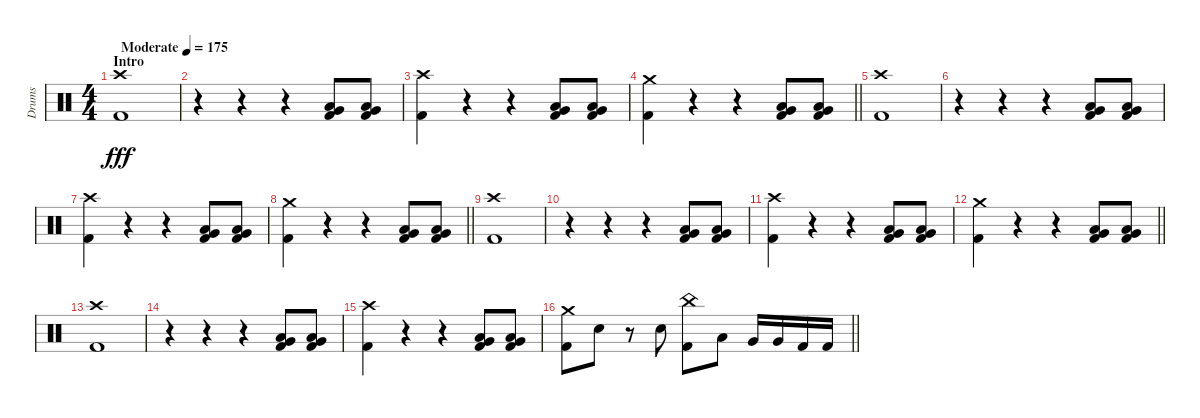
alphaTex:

\track ("Drums" "Drums") {instrument percussion}
\staff {score}
\articulation defaults
\ts (4 4)
\section ("" "Intro")
\tempo (175 "Moderate")
\clef neutral
\ks c
("Kick (hit) 2" "Crash high (hit)").1{dy fff} |
r.4 r.4 r.4 ("Kick (hit) 2" "Low Tom (hit)" "Very Low Tom (hit)").8 ("Kick (hit) 2" "Low Tom (hit)" "Very Low Tom (hit)").8 |
("Kick (hit) 2" "Crash high (hit)").4 r.4 r.4 ("Kick (hit) 2" "Low Tom (hit)" "Very Low Tom (hit)").8 ("Kick (hit) 2" "Low Tom (hit)" "Very Low Tom (hit)").8 |
\barLineRight lightlight
("Kick (hit) 2" "Crash medium (hit)").4 r.4 r.4 ("Kick (hit) 2" "Low Tom (hit)" "Very Low Tom (hit)").8 ("Kick (hit) 2" "Low Tom (hit)" "Very Low Tom (hit)").8 |
\section ("" "")
("Kick (hit) 2" "Crash high (hit)").1 |
r.4 r.4 r.4 ("Kick (hit) 2" "Low Tom (hit)" "Very Low Tom (hit)").8 ("Kick (hit) 2" "Low Tom (hit)" "Very Low Tom (hit)").8 |
("Kick (hit) 2" "Crash high (hit)").4 r.4 r.4 ("Kick (hit) 2" "Low Tom (hit)" "Very Low Tom (hit)").8 ("Kick (hit) 2" "Low Tom (hit)" "Very Low Tom (hit)").8 |
\barLineRight lightlight
("Kick (hit) 2" "Crash medium (hit)").4 r.4 r.4 ("Kick (hit) 2" "Low Tom (hit)" "Very Low Tom (hit)").8 ("Kick (hit) 2" "Low Tom (hit)" "Very Low Tom (hit)").8 |
\section ("" "")
("Kick (hit) 2" "Crash high (hit)").1 |
r.4 r.4 r.4 ("Kick (hit) 2" "Low Tom (hit)" "Very Low Tom (hit)").8 ("Kick (hit) 2" "Low Tom (hit)" "Very Low Tom (hit)").8 |
("Kick (hit) 2" "Crash high (hit)").4 r.4 r.4 ("Kick (hit) 2" "Low Tom (hit)" "Very Low Tom (hit)").8 ("Kick (hit) 2" "Low Tom (hit)" "Very Low Tom (hit)").8 |
\barLineRight lightlight
("Kick (hit) 2" "Crash medium (hit)").4 r.4 r.4 ("Kick (hit) 2" "Low Tom (hit)" "Very Low Tom (hit)").8 ("Kick (hit) 2" "Low Tom (hit)" "Very Low Tom (hit)").8 |
\section ("" "")
("Kick (hit) 2" "Crash high (hit)").1 |
r.4 r.4 r.4 ("Kick (hit) 2" "Low Tom (hit)" "Very Low Tom (hit)").8 ("Kick (hit) 2" "Low Tom (hit)" "Very Low Tom (hit)").8 |
("Kick (hit) 2" "Crash high (hit)").4 r.4 r.4 ("Kick (hit) 2" "Low Tom (hit)" "Very Low Tom (hit)").8 ("Kick (hit) 2" "Low Tom (hit)" "Very Low Tom (hit)").8 |
\barLineRight lightlight
("Kick (hit) 2" "Crash medium (hit)").8 "Electric Snare (hit)".8 r.8 "Electric Snare (hit)".8 ("Kick (hit) 2" "China (hit)").8 "Low Tom (hit)".8 "Very Low Tom (hit)".16 "Very Low Tom (hit)".16 "Kick (hit) 2".16 "Kick (hit) 2".16
